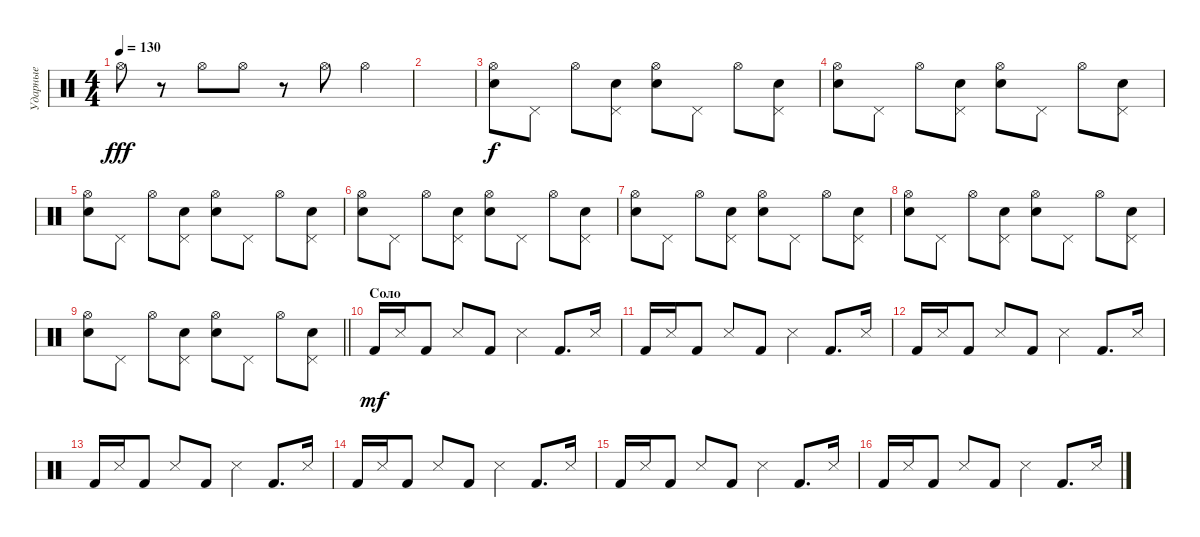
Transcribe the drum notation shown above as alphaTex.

\track ("Ударные" "Ударные") {instrument percussion}
\staff {score}
\articulation defaults
\ts (4 4)
\tempo 130
\clef neutral
\ks c "Hi-Hat (open)".8{dy fff}
r.8 "Hi-Hat (open)".8 "Hi-Hat (open)".8 r.8 "Hi-Hat (open)".8 "Hi-Hat (open)".4 |
|
("Hi-Hat (open)" "Snare (hit) 2").8{dy f} "Pedal Hi-Hat (hit)".8 "Hi-Hat (open)".8 ("Pedal Hi-Hat (hit)" "Snare (hit) 2").8 ("Hi-Hat (open)" "Snare (hit) 2").8 "Pedal Hi-Hat (hit)".8 "Hi-Hat (open)".8 ("Pedal Hi-Hat (hit)" "Snare (hit) 2").8 |
("Hi-Hat (open)" "Snare (hit) 2").8 "Pedal Hi-Hat (hit)".8 "Hi-Hat (open)".8 ("Pedal Hi-Hat (hit)" "Snare (hit) 2").8 ("Hi-Hat (open)" "Snare (hit) 2").8 "Pedal Hi-Hat (hit)".8 "Hi-Hat (open)".8 ("Pedal Hi-Hat (hit)" "Snare (hit) 2").8 |
("Hi-Hat (open)" "Snare (hit) 2").8 "Pedal Hi-Hat (hit)".8 "Hi-Hat (open)".8 ("Pedal Hi-Hat (hit)" "Snare (hit) 2").8 ("Hi-Hat (open)" "Snare (hit) 2").8 "Pedal Hi-Hat (hit)".8 "Hi-Hat (open)".8 ("Pedal Hi-Hat (hit)" "Snare (hit) 2").8 |
("Hi-Hat (open)" "Snare (hit) 2").8 "Pedal Hi-Hat (hit)".8 "Hi-Hat (open)".8 ("Pedal Hi-Hat (hit)" "Snare (hit) 2").8 ("Hi-Hat (open)" "Snare (hit) 2").8 "Pedal Hi-Hat (hit)".8 "Hi-Hat (open)".8 ("Pedal Hi-Hat (hit)" "Snare (hit) 2").8 |
("Hi-Hat (open)" "Snare (hit) 2").8 "Pedal Hi-Hat (hit)".8 "Hi-Hat (open)".8 ("Pedal Hi-Hat (hit)" "Snare (hit) 2").8 ("Hi-Hat (open)" "Snare (hit) 2").8 "Pedal Hi-Hat (hit)".8 "Hi-Hat (open)".8 ("Pedal Hi-Hat (hit)" "Snare (hit) 2").8 |
("Hi-Hat (open)" "Snare (hit) 2").8 "Pedal Hi-Hat (hit)".8 "Hi-Hat (open)".8 ("Pedal Hi-Hat (hit)" "Snare (hit) 2").8 ("Hi-Hat (open)" "Snare (hit) 2").8 "Pedal Hi-Hat (hit)".8 "Hi-Hat (open)".8 ("Pedal Hi-Hat (hit)" "Snare (hit) 2").8 |
\barLineRight lightlight
("Hi-Hat (open)" "Snare (hit) 2").8 "Pedal Hi-Hat (hit)".8 "Hi-Hat (open)".8 ("Pedal Hi-Hat (hit)" "Snare (hit) 2").8 ("Hi-Hat (open)" "Snare (hit) 2").8 "Pedal Hi-Hat (hit)".8 "Hi-Hat (open)".8 ("Pedal Hi-Hat (hit)" "Snare (hit) 2").8 |
\section ("" "Соло")
"Kick (hit) 2".16{dy mf} "Snare (side stick) 3".16 "Kick (hit) 2".8 "Snare (side stick) 3".8 "Kick (hit) 2".8 "Snare (side stick) 3".4 "Kick (hit) 2".8{d} "Snare (side stick) 3".16 |
"Kick (hit) 2".16 "Snare (side stick) 3".16 "Kick (hit) 2".8 "Snare (side stick) 3".8 "Kick (hit) 2".8 "Snare (side stick) 3".4 "Kick (hit) 2".8{d} "Snare (side stick) 3".16 |
"Kick (hit) 2".16 "Snare (side stick) 3".16 "Kick (hit) 2".8 "Snare (side stick) 3".8 "Kick (hit) 2".8 "Snare (side stick) 3".4 "Kick (hit) 2".8{d} "Snare (side stick) 3".16 |
"Kick (hit) 2".16 "Snare (side stick) 3".16 "Kick (hit) 2".8 "Snare (side stick) 3".8 "Kick (hit) 2".8 "Snare (side stick) 3".4 "Kick (hit) 2".8{d} "Snare (side stick) 3".16 |
"Kick (hit) 2".16 "Snare (side stick) 3".16 "Kick (hit) 2".8 "Snare (side stick) 3".8 "Kick (hit) 2".8 "Snare (side stick) 3".4 "Kick (hit) 2".8{d} "Snare (side stick) 3".16 |
"Kick (hit) 2".16 "Snare (side stick) 3".16 "Kick (hit) 2".8 "Snare (side stick) 3".8 "Kick (hit) 2".8 "Snare (side stick) 3".4 "Kick (hit) 2".8{d} "Snare (side stick) 3".16 |
"Kick (hit) 2".16 "Snare (side stick) 3".16 "Kick (hit) 2".8 "Snare (side stick) 3".8 "Kick (hit) 2".8 "Snare (side stick) 3".4 "Kick (hit) 2".8{d} "Snare (side stick) 3".16
